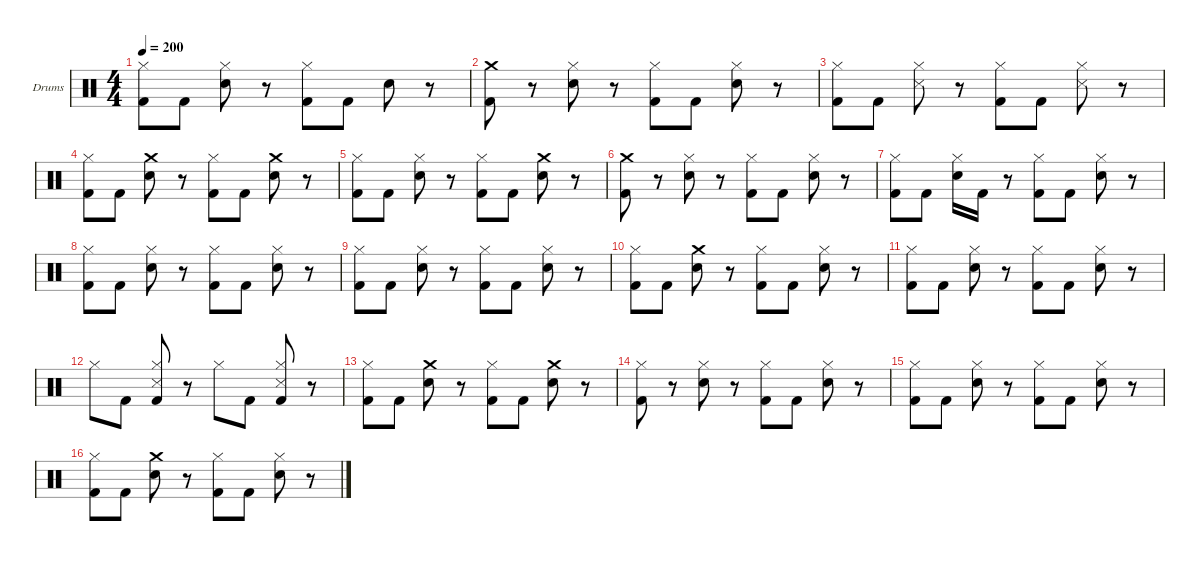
\hideDynamics
\bracketExtendMode nobrackets
\firstSystemTrackNameOrientation horizontal
\otherSystemsTrackNameOrientation horizontal
\track ("Drumkit" "Drums") {instrument percussion}
\staff {score}
\articulation defaults
\ts (4 4)
\tempo 200
\clef neutral
\ks c
("Kick (hit) 2" "Hi-Hat (closed)").8{dy f} "Kick (hit) 2".8 ("Snare (hit) 2" "Hi-Hat (closed)").8 r.8 ("Kick (hit) 2" "Hi-Hat (closed)").8 "Kick (hit) 2".8 "Snare (hit) 2".8 r.8 |
("Kick (hit) 2" "Crash medium (hit)").8 r.8 ("Hi-Hat (closed)" "Snare (hit) 2").8 r.8 ("Kick (hit) 2" "Hi-Hat (closed)").8 "Kick (hit) 2".8 ("Snare (hit) 2" "Hi-Hat (closed)").8 r.8 |
("Kick (hit) 2" "Hi-Hat (closed)").8 "Kick (hit) 2".8 ("Snare (side stick) 3" "Hi-Hat (closed)").8 r.8 ("Kick (hit) 2" "Hi-Hat (closed)").8 "Kick (hit) 2".8 ("Snare (side stick) 3" "Hi-Hat (closed)").8 r.8 |
("Kick (hit) 2" "Hi-Hat (closed)").8 "Kick (hit) 2".8 ("Crash medium (hit)" "Snare (hit) 2").8 r.8 ("Kick (hit) 2" "Hi-Hat (closed)").8 "Kick (hit) 2".8 ("Crash medium (hit)" "Snare (hit) 2").8 r.8 |
("Kick (hit) 2" "Hi-Hat (closed)").8 "Kick (hit) 2".8 ("Snare (hit) 2" "Hi-Hat (closed)").8 r.8 ("Kick (hit) 2" "Hi-Hat (closed)").8 "Kick (hit) 2".8 ("Crash medium (hit)" "Snare (hit) 2").8 r.8 |
("Kick (hit) 2" "Crash medium (hit)").8 r.8 ("Hi-Hat (closed)" "Snare (hit) 2").8 r.8 ("Kick (hit) 2" "Hi-Hat (closed)").8 "Kick (hit) 2".8 ("Snare (hit) 2" "Hi-Hat (closed)").8 r.8 |
("Kick (hit) 2" "Hi-Hat (closed)").8 "Kick (hit) 2".8 ("Snare (hit) 2" "Hi-Hat (closed)").16 "Kick (hit) 2".16 r.8 ("Hi-Hat (closed)" "Kick (hit) 2").8 "Kick (hit) 2".8 ("Hi-Hat (closed)" "Snare (hit) 2").8 r.8 |
("Kick (hit) 2" "Hi-Hat (closed)").8 "Kick (hit) 2".8 ("Snare (hit) 2" "Hi-Hat (closed)").8 r.8 ("Kick (hit) 2" "Hi-Hat (closed)").8 "Kick (hit) 2".8 ("Snare (hit) 2" "Hi-Hat (closed)").8 r.8 |
("Kick (hit) 2" "Hi-Hat (closed)").8 "Kick (hit) 2".8 ("Snare (hit) 2" "Hi-Hat (closed)").8 r.8 ("Kick (hit) 2" "Hi-Hat (closed)").8 "Kick (hit) 2".8 ("Snare (hit) 2" "Hi-Hat (closed)").8 r.8 |
("Kick (hit) 2" "Hi-Hat (closed)").8 "Kick (hit) 2".8 ("Crash medium (hit)" "Snare (hit) 2").8 r.8 ("Kick (hit) 2" "Hi-Hat (closed)").8 "Kick (hit) 2".8 ("Snare (hit) 2" "Hi-Hat (closed)").8 r.8 |
("Kick (hit) 2" "Hi-Hat (closed)").8 "Kick (hit) 2".8 ("Snare (hit) 2" "Hi-Hat (closed)").8 r.8 ("Kick (hit) 2" "Hi-Hat (closed)").8 "Kick (hit) 2".8 ("Snare (hit) 2" "Hi-Hat (closed)").8 r.8 |
"Hi-Hat (closed)".8 "Kick (hit) 2".8 ("Kick (hit) 2" "Snare (side stick) 3" "Hi-Hat (closed)").8 r.8 "Hi-Hat (closed)".8 "Kick (hit) 2".8 ("Kick (hit) 2" "Snare (side stick) 3" "Hi-Hat (closed)").8 r.8 |
("Kick (hit) 2" "Hi-Hat (closed)").8 "Kick (hit) 2".8 ("Crash medium (hit)" "Snare (hit) 2").8 r.8 ("Kick (hit) 2" "Hi-Hat (closed)").8 "Kick (hit) 2".8 ("Crash medium (hit)" "Snare (hit) 2").8 r.8 |
("Kick (hit) 2" "Hi-Hat (closed)").8 r.8 ("Snare (hit) 2" "Hi-Hat (closed)").8 r.8 ("Kick (hit) 2" "Hi-Hat (closed)").8 "Kick (hit) 2".8 ("Hi-Hat (closed)" "Snare (hit) 2").8 r.8 |
("Kick (hit) 2" "Hi-Hat (closed)").8 "Kick (hit) 2".8 ("Snare (hit) 2" "Hi-Hat (closed)").8 r.8 ("Kick (hit) 2" "Hi-Hat (closed)").8 "Kick (hit) 2".8 ("Snare (hit) 2" "Hi-Hat (closed)").8 r.8 |
("Kick (hit) 2" "Hi-Hat (closed)").8 "Kick (hit) 2".8 ("Crash medium (hit)" "Snare (hit) 2").8 r.8 ("Kick (hit) 2" "Hi-Hat (closed)").8 "Kick (hit) 2".8 ("Snare (hit) 2" "Hi-Hat (closed)").8 r.8
